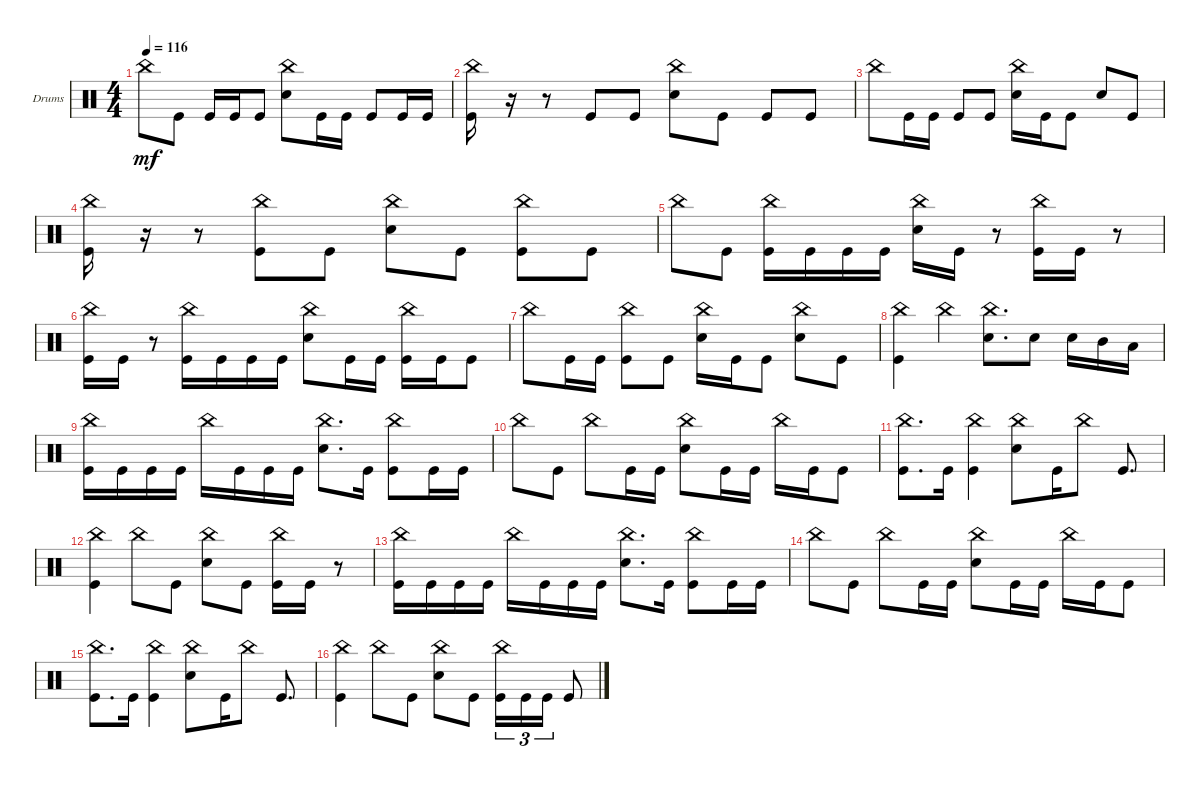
\defaultSystemsLayout 4
\bracketExtendMode groupsimilarinstruments
\firstSystemTrackNameOrientation horizontal
\otherSystemsTrackNameOrientation horizontal
\track ("Drumkit" "Drums") {instrument percussion}
\staff {score}
\articulation defaults
\ts (4 4)
\tempo 116
\clef neutral
\ks c "China (hit)".8{dy mf} "Kick (hit)".8 "Kick (hit)".16 "Kick (hit)".16 "Kick (hit)".8
("China (hit)" "Snare (hit) 2").8 "Kick (hit)".16 "Kick (hit)".16 "Kick (hit)".8 "Kick (hit)".16 "Kick (hit)".16 |
("Kick (hit)" "China (hit)").16 r.16 r.8 "Kick (hit)".8 "Kick (hit)".8 ("China (hit)" "Snare (hit) 2").8 "Kick (hit)".8 "Kick (hit)".8 "Kick (hit)".8 |
"China (hit)".8 "Kick (hit)".16 "Kick (hit)".16 "Kick (hit)".8 "Kick (hit)".8 ("China (hit)" "Snare (hit) 2").16 "Kick (hit)".16 "Kick (hit)".8 "Snare (hit) 2".8 "Kick (hit)".8 |
("Kick (hit)" "China (hit)").16 r.16 r.8 ("Kick (hit)" "China (hit)").8 "Kick (hit)".8 ("China (hit)" "Snare (hit) 2").8 "Kick (hit)".8 ("China (hit)" "Kick (hit)").8 "Kick (hit)".8 |
"China (hit)".8 "Kick (hit)".8 ("China (hit)" "Kick (hit)").16 "Kick (hit)".16 "Kick (hit)".16 "Kick (hit)".16 ("China (hit)" "Snare (hit) 2").16 "Kick (hit)".16 r.8 ("Kick (hit)" "China (hit)").16 "Kick (hit)".16 r.8 |
("Kick (hit)" "China (hit)").16 "Kick (hit)".16 r.8 ("Kick (hit)" "China (hit)").16 "Kick (hit)".16 "Kick (hit)".16 "Kick (hit)".16 ("China (hit)" "Snare (hit) 2").8 "Kick (hit)".16 "Kick (hit)".16 ("China (hit)" "Kick (hit)").16 "Kick (hit)".16 "Kick (hit)".8 |
"China (hit)".8 "Kick (hit)".16 "Kick (hit)".16 ("China (hit)" "Kick (hit)").8 "Kick (hit)".8 ("China (hit)" "Snare (hit) 2").16 "Kick (hit)".16 "Kick (hit)".8 ("China (hit)" "Snare (hit) 2").8 "Kick (hit)".8 |
("Kick (hit)" "China (hit)").4 "China (hit)".4 ("Snare (hit) 2" "China (hit)").8{d} "Snare (hit) 2".8 "Snare (hit) 2".16 "Mid Tom (hit)".16 "Low Tom (hit)".16 |
("Kick (hit)" "China (hit)").16 "Kick (hit)".16 "Kick (hit)".16 "Kick (hit)".16 "China (hit)".16 "Kick (hit)".16 "Kick (hit)".16 "Kick (hit)".16 ("China (hit)" "Snare (hit) 2").8{d} "Kick (hit)".16 ("Kick (hit)" "China (hit)").8 "Kick (hit)".16 "Kick (hit)".16 |
"China (hit)".8 "Kick (hit)".8 "China (hit)".8 "Kick (hit)".16 "Kick (hit)".16 ("China (hit)" "Snare (hit) 2").8 "Kick (hit)".16 "Kick (hit)".16 "China (hit)".16 "Kick (hit)".16 "Kick (hit)".8 |
("Kick (hit)" "China (hit)").8{d} "Kick (hit)".16 ("Kick (hit)" "China (hit)").4 ("China (hit)" "Snare (hit) 2").8 "Kick (hit)".16 "China (hit)".8 "Kick (hit)".8{d} |
("China (hit)" "Kick (hit)").4 "China (hit)".8 "Kick (hit)".8 ("China (hit)" "Snare (hit) 2").8 "Kick (hit)".8 ("China (hit)" "Kick (hit)").16 "Kick (hit)".16 r.8 |
("Kick (hit)" "China (hit)").16 "Kick (hit)".16 "Kick (hit)".16 "Kick (hit)".16 "China (hit)".16 "Kick (hit)".16 "Kick (hit)".16 "Kick (hit)".16 ("China (hit)" "Snare (hit) 2").8{d} "Kick (hit)".16 ("Kick (hit)" "China (hit)").8 "Kick (hit)".16 "Kick (hit)".16 |
"China (hit)".8 "Kick (hit)".8 "China (hit)".8 "Kick (hit)".16 "Kick (hit)".16 ("China (hit)" "Snare (hit) 2").8 "Kick (hit)".16 "Kick (hit)".16 "China (hit)".16 "Kick (hit)".16 "Kick (hit)".8 |
("Kick (hit)" "China (hit)").8{d} "Kick (hit)".16 ("Kick (hit)" "China (hit)").4 ("China (hit)" "Snare (hit) 2").8 "Kick (hit)".16 "China (hit)".8 "Kick (hit)".8{d} |
("China (hit)" "Kick (hit)").4 "China (hit)".8 "Kick (hit)".8 ("China (hit)" "Snare (hit) 2").8 "Kick (hit)".8 ("China (hit)" "Kick (hit)").16{tu (3 2)} "Kick (hit)".16{tu (3 2)} "Kick (hit)".16{tu (3 2)} "Kick (hit)".8
